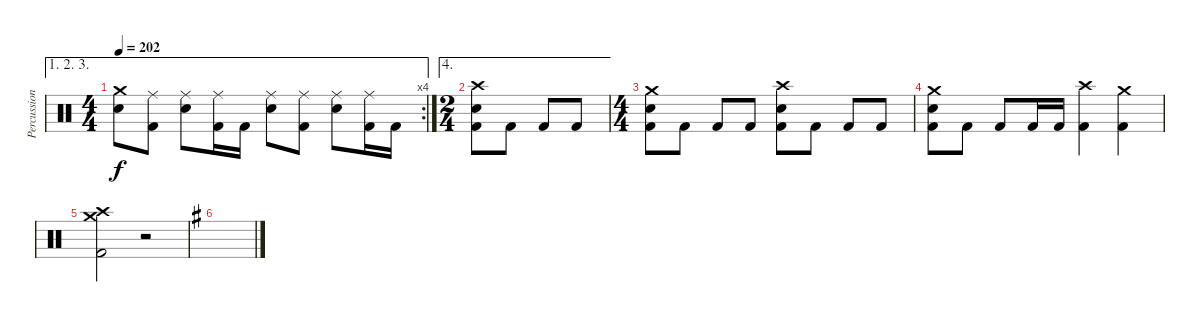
\track ("Percussion" "Percussion") {instrument percussion}
\staff {score}
\articulation defaults
\ae (1 2 3)
\rc 4
\ts (4 4)
\tempo 202
\clef neutral
\ks c
("Crash medium (hit)" "Electric Snare (hit)").8{dy f} ("Ride (middle)" "Kick (hit) 2").8 ("Ride (middle)" "Electric Snare (hit)").8 ("Ride (middle)" "Kick (hit) 2").16 "Kick (hit) 2".16 ("Ride (middle)" "Electric Snare (hit)").8 ("Ride (middle)" "Kick (hit) 2").8 ("Ride (middle)" "Electric Snare (hit)").8 ("Ride (middle)" "Kick (hit) 2").16 "Kick (hit) 2".16 |
\ae 4
\ts (2 4)
("Crash high (hit)" "Electric Snare (hit)" "Kick (hit) 2").8 "Kick (hit) 2".8 "Kick (hit) 2".8 "Kick (hit) 2".8 |
\ts (4 4)
("Crash medium (hit)" "Electric Snare (hit)" "Kick (hit) 2").8 "Kick (hit) 2".8 "Kick (hit) 2".8 "Kick (hit) 2".8 ("Crash high (hit)" "Electric Snare (hit)" "Kick (hit) 2").8 "Kick (hit) 2".8 "Kick (hit) 2".8 "Kick (hit) 2".8 |
("Crash medium (hit)" "Electric Snare (hit)" "Kick (hit) 2").8 "Kick (hit) 2".8 "Kick (hit) 2".8 "Kick (hit) 2".16 "Kick (hit) 2".16 ("Crash high (hit)" "Kick (hit) 2").4 ("Crash medium (hit)" "Kick (hit) 2").4 |
("Crash high (hit)" "Crash medium (hit)" "Kick (hit) 2").2 r.2 |
\ks g
